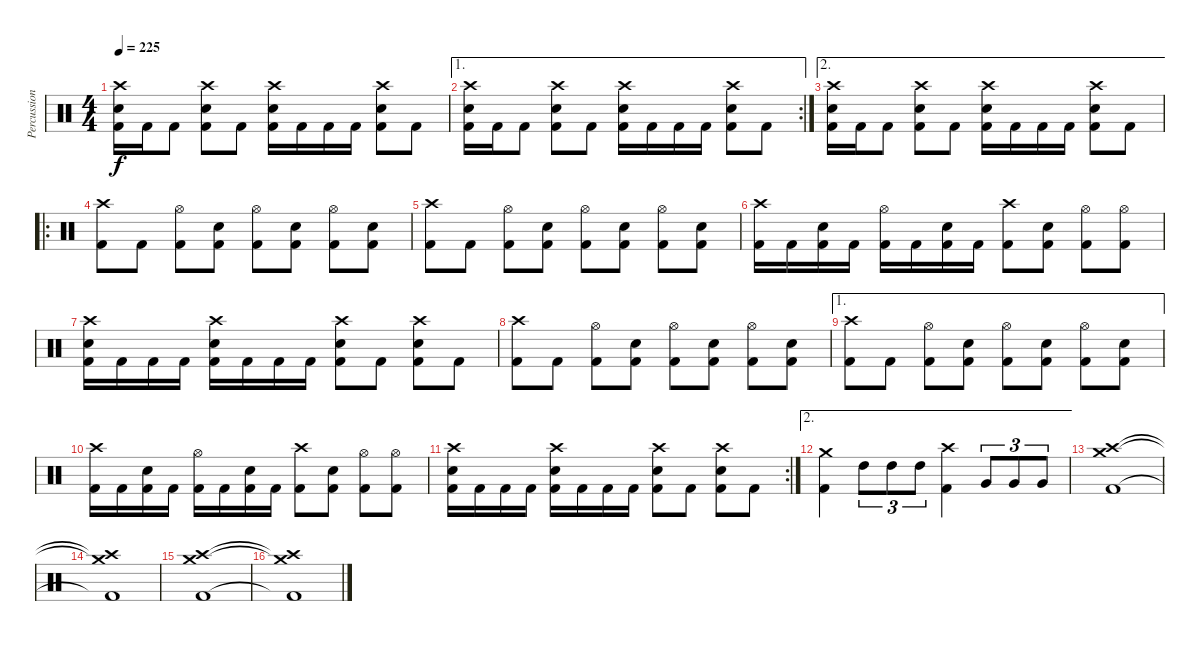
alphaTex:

\track ("Percussion" "Percussion") {instrument percussion}
\staff {score}
\articulation defaults
\ts (4 4)
\tempo 225
\clef neutral
\ks c
("Crash high (hit)" "Snare (hit) 2" "Kick (hit) 2").16{dy f} "Kick (hit) 2".16 "Kick (hit) 2".8 ("Crash high (hit)" "Snare (hit) 2" "Kick (hit) 2").8 "Kick (hit) 2".8 ("Crash high (hit)" "Snare (hit) 2" "Kick (hit) 2").16 "Kick (hit) 2".16 "Kick (hit) 2".16 "Kick (hit) 2".16 ("Crash high (hit)" "Snare (hit) 2" "Kick (hit) 2").8 "Kick (hit) 2".8 |
\ae 1
\rc 2
("Crash high (hit)" "Snare (hit) 2" "Kick (hit) 2").16 "Kick (hit) 2".16 "Kick (hit) 2".8 ("Crash high (hit)" "Snare (hit) 2" "Kick (hit) 2").8 "Kick (hit) 2".8 ("Crash high (hit)" "Snare (hit) 2" "Kick (hit) 2").16 "Kick (hit) 2".16 "Kick (hit) 2".16 "Kick (hit) 2".16 ("Crash high (hit)" "Snare (hit) 2" "Kick (hit) 2").8 "Kick (hit) 2".8 |
\ae 2
("Crash high (hit)" "Snare (hit) 2" "Kick (hit) 2").16 "Kick (hit) 2".16 "Kick (hit) 2".8 ("Crash high (hit)" "Snare (hit) 2" "Kick (hit) 2").8 "Kick (hit) 2".8 ("Crash high (hit)" "Snare (hit) 2" "Kick (hit) 2").16 "Kick (hit) 2".16 "Kick (hit) 2".16 "Kick (hit) 2".16 ("Crash high (hit)" "Snare (hit) 2" "Kick (hit) 2").8 "Kick (hit) 2".8 |
\ro
("Crash high (hit)" "Kick (hit) 2").8 "Kick (hit) 2".8 ("Hi-Hat (open)" "Kick (hit) 2").8 ("Snare (hit) 2" "Kick (hit) 2").8 ("Hi-Hat (open)" "Kick (hit) 2").8 ("Snare (hit) 2" "Kick (hit) 2").8 ("Hi-Hat (open)" "Kick (hit) 2").8 ("Snare (hit) 2" "Kick (hit) 2").8 |
("Crash high (hit)" "Kick (hit) 2").8 "Kick (hit) 2".8 ("Hi-Hat (open)" "Kick (hit) 2").8 ("Snare (hit) 2" "Kick (hit) 2").8 ("Hi-Hat (open)" "Kick (hit) 2").8 ("Snare (hit) 2" "Kick (hit) 2").8 ("Hi-Hat (open)" "Kick (hit) 2").8 ("Snare (hit) 2" "Kick (hit) 2").8 |
("Crash high (hit)" "Kick (hit) 2").16 "Kick (hit) 2".16 ("Snare (hit) 2" "Kick (hit) 2").16 "Kick (hit) 2".16 ("Hi-Hat (open)" "Kick (hit) 2").16 "Kick (hit) 2".16 ("Snare (hit) 2" "Kick (hit) 2").16 "Kick (hit) 2".16 ("Crash high (hit)" "Kick (hit) 2").8 ("Snare (hit) 2" "Kick (hit) 2").8 ("Hi-Hat (open)" "Kick (hit) 2").8 ("Hi-Hat (open)" "Kick (hit) 2").8 |
("Crash high (hit)" "Snare (hit) 2" "Kick (hit) 2").16 "Kick (hit) 2".16 "Kick (hit) 2".16 "Kick (hit) 2".16 ("Crash high (hit)" "Snare (hit) 2" "Kick (hit) 2").16 "Kick (hit) 2".16 "Kick (hit) 2".16 "Kick (hit) 2".16 ("Crash high (hit)" "Snare (hit) 2" "Kick (hit) 2").8 "Kick (hit) 2".8 ("Crash high (hit)" "Snare (hit) 2" "Kick (hit) 2").8 "Kick (hit) 2".8 |
("Crash high (hit)" "Kick (hit) 2").8 "Kick (hit) 2".8 ("Hi-Hat (open)" "Kick (hit) 2").8 ("Snare (hit) 2" "Kick (hit) 2").8 ("Hi-Hat (open)" "Kick (hit) 2").8 ("Snare (hit) 2" "Kick (hit) 2").8 ("Hi-Hat (open)" "Kick (hit) 2").8 ("Snare (hit) 2" "Kick (hit) 2").8 |
\ae 1
("Crash high (hit)" "Kick (hit) 2").8 "Kick (hit) 2".8 ("Hi-Hat (open)" "Kick (hit) 2").8 ("Snare (hit) 2" "Kick (hit) 2").8 ("Hi-Hat (open)" "Kick (hit) 2").8 ("Snare (hit) 2" "Kick (hit) 2").8 ("Hi-Hat (open)" "Kick (hit) 2").8 ("Snare (hit) 2" "Kick (hit) 2").8 |
("Crash high (hit)" "Kick (hit) 2").16 "Kick (hit) 2".16 ("Snare (hit) 2" "Kick (hit) 2").16 "Kick (hit) 2".16 ("Hi-Hat (open)" "Kick (hit) 2").16 "Kick (hit) 2".16 ("Snare (hit) 2" "Kick (hit) 2").16 "Kick (hit) 2".16 ("Crash high (hit)" "Kick (hit) 2").8 ("Snare (hit) 2" "Kick (hit) 2").8 ("Hi-Hat (open)" "Kick (hit) 2").8 ("Hi-Hat (open)" "Kick (hit) 2").8 |
\rc 2
("Crash high (hit)" "Snare (hit) 2" "Kick (hit) 2").16 "Kick (hit) 2".16 "Kick (hit) 2".16 "Kick (hit) 2".16 ("Crash high (hit)" "Snare (hit) 2" "Kick (hit) 2").16 "Kick (hit) 2".16 "Kick (hit) 2".16 "Kick (hit) 2".16 ("Crash high (hit)" "Snare (hit) 2" "Kick (hit) 2").8 "Kick (hit) 2".8 ("Crash high (hit)" "Snare (hit) 2" "Kick (hit) 2").8 "Kick (hit) 2".8 |
\ae 2
("Crash medium (hit)" "Kick (hit) 2").4 "High Tom (hit)".8{tu (3 2)} "High Tom (hit)".8{tu (3 2)} "High Tom (hit)".8{tu (3 2)} ("Crash high (hit)" "Kick (hit) 2").4 "Very Low Tom (hit)".8{tu (3 2)} "Very Low Tom (hit)".8{tu (3 2)} "Very Low Tom (hit)".8{tu (3 2)} |
("Crash medium (hit)" "Crash high (hit)" "Kick (hit) 2").1 |
("Crash medium (hit)"{t} "Crash high (hit)"{t} "Kick (hit) 2"{t}).1 |
("Crash medium (hit)" "Crash high (hit)" "Kick (hit) 2").1 |
("Crash medium (hit)"{t} "Crash high (hit)"{t} "Kick (hit) 2"{t}).1
